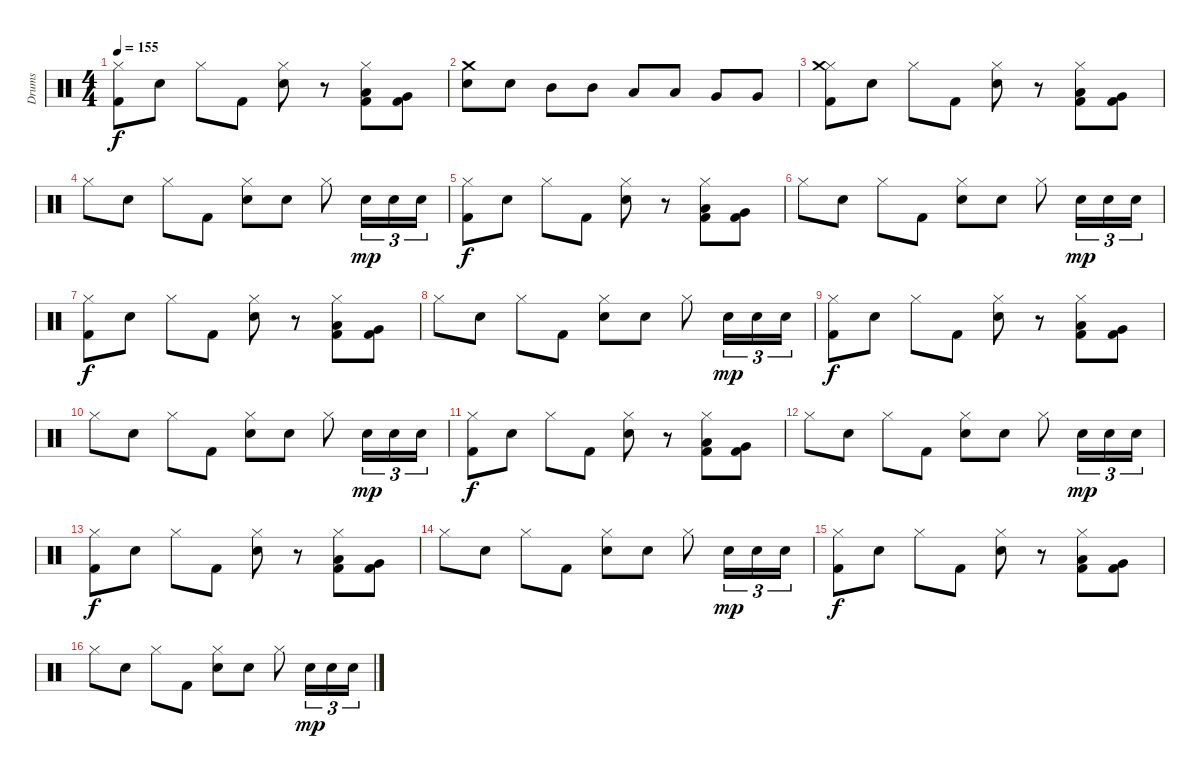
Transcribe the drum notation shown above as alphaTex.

\track ("Drums" "Drums") {instrument percussion}
\staff {score}
\articulation defaults
\ts (4 4)
\tempo 155
\clef neutral
\ks c
("Hi-Hat (closed)" "Kick (hit) 2").8{dy f} "Electric Snare (hit)".8 "Hi-Hat (closed)".8 "Kick (hit) 2".8 ("Hi-Hat (closed)" "Electric Snare (hit)").8 r.8 ("Hi-Hat (closed)" "Low Tom (hit)" "Kick (hit) 2").8 ("Very Low Tom (hit)" "Kick (hit) 2").8 |
("Crash medium (hit)" "Electric Snare (hit)").8 "Electric Snare (hit)".8 "Mid Tom (hit)".8 "Mid Tom (hit)".8 "Low Tom (hit)".8 "Low Tom (hit)".8 "Very Low Tom (hit)".8 "Very Low Tom (hit)".8 |
("Hi-Hat (closed)" "Crash medium (hit)" "Kick (hit) 2").8 "Electric Snare (hit)".8 "Hi-Hat (closed)".8 "Kick (hit) 2".8 ("Hi-Hat (closed)" "Electric Snare (hit)").8 r.8 ("Hi-Hat (closed)" "Low Tom (hit)" "Kick (hit) 2").8 ("Very Low Tom (hit)" "Kick (hit) 2").8 |
"Hi-Hat (closed)".8 "Electric Snare (hit)".8 "Hi-Hat (closed)".8 "Kick (hit) 2".8 ("Hi-Hat (closed)" "Electric Snare (hit)").8 "Electric Snare (hit)".8 "Hi-Hat (closed)".8 "Electric Snare (hit)".16{tu (3 2) dy mp} "Electric Snare (hit)".16{tu (3 2)} "Electric Snare (hit)".16{tu (3 2)} |
("Hi-Hat (closed)" "Kick (hit) 2").8{dy f} "Electric Snare (hit)".8 "Hi-Hat (closed)".8 "Kick (hit) 2".8 ("Hi-Hat (closed)" "Electric Snare (hit)").8 r.8 ("Hi-Hat (closed)" "Low Tom (hit)" "Kick (hit) 2").8 ("Very Low Tom (hit)" "Kick (hit) 2").8 |
"Hi-Hat (closed)".8 "Electric Snare (hit)".8 "Hi-Hat (closed)".8 "Kick (hit) 2".8 ("Hi-Hat (closed)" "Electric Snare (hit)").8 "Electric Snare (hit)".8 "Hi-Hat (closed)".8 "Electric Snare (hit)".16{tu (3 2) dy mp} "Electric Snare (hit)".16{tu (3 2)} "Electric Snare (hit)".16{tu (3 2)} |
("Hi-Hat (closed)" "Kick (hit) 2").8{dy f} "Electric Snare (hit)".8 "Hi-Hat (closed)".8 "Kick (hit) 2".8 ("Hi-Hat (closed)" "Electric Snare (hit)").8 r.8 ("Hi-Hat (closed)" "Low Tom (hit)" "Kick (hit) 2").8 ("Very Low Tom (hit)" "Kick (hit) 2").8 |
"Hi-Hat (closed)".8 "Electric Snare (hit)".8 "Hi-Hat (closed)".8 "Kick (hit) 2".8 ("Hi-Hat (closed)" "Electric Snare (hit)").8 "Electric Snare (hit)".8 "Hi-Hat (closed)".8 "Electric Snare (hit)".16{tu (3 2) dy mp} "Electric Snare (hit)".16{tu (3 2)} "Electric Snare (hit)".16{tu (3 2)} |
("Hi-Hat (closed)" "Kick (hit) 2").8{dy f} "Electric Snare (hit)".8 "Hi-Hat (closed)".8 "Kick (hit) 2".8 ("Hi-Hat (closed)" "Electric Snare (hit)").8 r.8 ("Hi-Hat (closed)" "Low Tom (hit)" "Kick (hit) 2").8 ("Very Low Tom (hit)" "Kick (hit) 2").8 |
"Hi-Hat (closed)".8 "Electric Snare (hit)".8 "Hi-Hat (closed)".8 "Kick (hit) 2".8 ("Hi-Hat (closed)" "Electric Snare (hit)").8 "Electric Snare (hit)".8 "Hi-Hat (closed)".8 "Electric Snare (hit)".16{tu (3 2) dy mp} "Electric Snare (hit)".16{tu (3 2)} "Electric Snare (hit)".16{tu (3 2)} |
("Hi-Hat (closed)" "Kick (hit) 2").8{dy f} "Electric Snare (hit)".8 "Hi-Hat (closed)".8 "Kick (hit) 2".8 ("Hi-Hat (closed)" "Electric Snare (hit)").8 r.8 ("Hi-Hat (closed)" "Low Tom (hit)" "Kick (hit) 2").8 ("Very Low Tom (hit)" "Kick (hit) 2").8 |
"Hi-Hat (closed)".8 "Electric Snare (hit)".8 "Hi-Hat (closed)".8 "Kick (hit) 2".8 ("Hi-Hat (closed)" "Electric Snare (hit)").8 "Electric Snare (hit)".8 "Hi-Hat (closed)".8 "Electric Snare (hit)".16{tu (3 2) dy mp} "Electric Snare (hit)".16{tu (3 2)} "Electric Snare (hit)".16{tu (3 2)} |
("Hi-Hat (closed)" "Kick (hit) 2").8{dy f} "Electric Snare (hit)".8 "Hi-Hat (closed)".8 "Kick (hit) 2".8 ("Hi-Hat (closed)" "Electric Snare (hit)").8 r.8 ("Hi-Hat (closed)" "Low Tom (hit)" "Kick (hit) 2").8 ("Very Low Tom (hit)" "Kick (hit) 2").8 |
"Hi-Hat (closed)".8 "Electric Snare (hit)".8 "Hi-Hat (closed)".8 "Kick (hit) 2".8 ("Hi-Hat (closed)" "Electric Snare (hit)").8 "Electric Snare (hit)".8 "Hi-Hat (closed)".8 "Electric Snare (hit)".16{tu (3 2) dy mp} "Electric Snare (hit)".16{tu (3 2)} "Electric Snare (hit)".16{tu (3 2)} |
("Hi-Hat (closed)" "Kick (hit) 2").8{dy f} "Electric Snare (hit)".8 "Hi-Hat (closed)".8 "Kick (hit) 2".8 ("Hi-Hat (closed)" "Electric Snare (hit)").8 r.8 ("Hi-Hat (closed)" "Low Tom (hit)" "Kick (hit) 2").8 ("Very Low Tom (hit)" "Kick (hit) 2").8 |
"Hi-Hat (closed)".8 "Electric Snare (hit)".8 "Hi-Hat (closed)".8 "Kick (hit) 2".8 ("Hi-Hat (closed)" "Electric Snare (hit)").8 "Electric Snare (hit)".8 "Hi-Hat (closed)".8 "Electric Snare (hit)".16{tu (3 2) dy mp} "Electric Snare (hit)".16{tu (3 2)} "Electric Snare (hit)".16{tu (3 2)}
